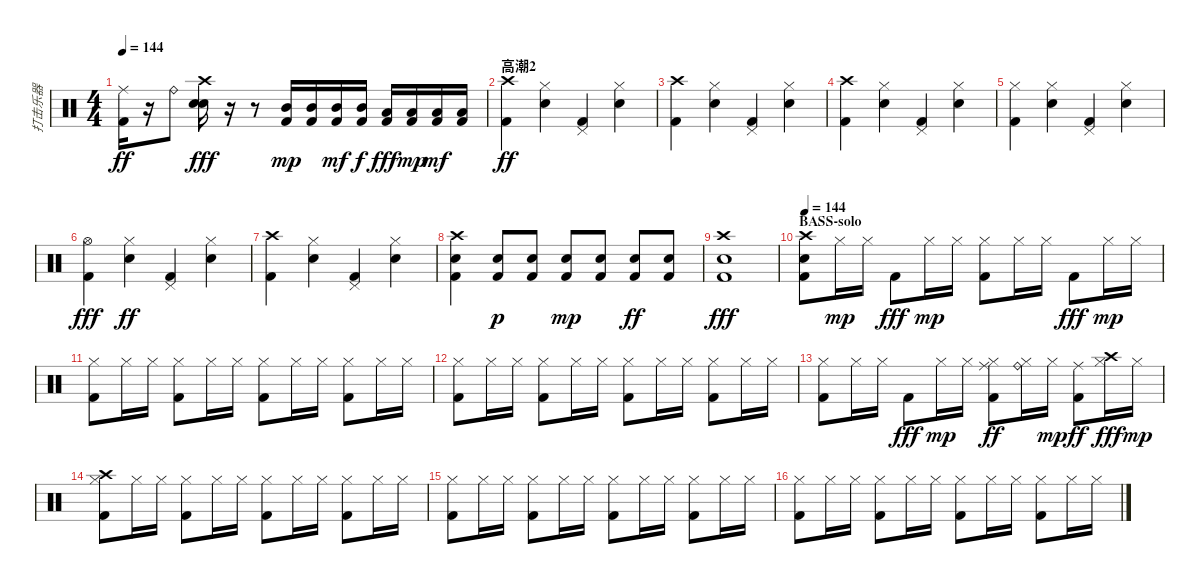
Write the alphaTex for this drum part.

\track ("打击乐器" "打击乐器") {instrument percussion}
\staff {score}
\articulation defaults
\ts (4 4)
\tempo 144
\clef neutral
\ks c
("Kick (hit) 2" "Ride (middle)").16{dy ff} r.16 "Ride (bell)".8 ("Snare (hit) 2" "Snare (hit) 2" "Crash high (hit)").16{dy fff} r.16 r.8 ("Kick (hit) 2" "Mid Tom (hit)").16{dy mp} ("Kick (hit) 2" "Mid Tom (hit)").16 ("Kick (hit) 2" "Mid Tom (hit)").16{dy mf} ("Kick (hit) 2" "Mid Tom (hit)").16{dy f} ("Kick (hit) 2" "Low Tom (hit)").16{dy fff} ("Kick (hit) 2" "Low Tom (hit)").16{dy mp} ("Kick (hit) 2" "Low Tom (hit)").16{dy mf} ("Kick (hit) 2" "Low Tom (hit)").16 |
\section ("" "高潮2")
("Kick (hit) 2" "Crash high (hit)").4{dy ff} ("Snare (hit) 2" "Hi-Hat (closed)").4 ("Kick (hit) 2" "Pedal Hi-Hat (hit)").4 ("Snare (hit) 2" "Hi-Hat (closed)").4 |
("Kick (hit) 2" "Crash high (hit)").4 ("Snare (hit) 2" "Hi-Hat (closed)").4 ("Kick (hit) 2" "Pedal Hi-Hat (hit)").4 ("Snare (hit) 2" "Hi-Hat (closed)").4 |
("Kick (hit) 2" "Crash high (hit)").4 ("Snare (hit) 2" "Hi-Hat (closed)").4 ("Kick (hit) 2" "Pedal Hi-Hat (hit)").4 ("Snare (hit) 2" "Hi-Hat (closed)").4 |
("Kick (hit) 2" "Hi-Hat (closed)").4 ("Snare (hit) 2" "Hi-Hat (closed)").4 ("Kick (hit) 2" "Pedal Hi-Hat (hit)").4 ("Snare (hit) 2" "Hi-Hat (closed)").4 |
("Kick (hit) 2" "Hi-Hat (open)").4{dy fff} ("Snare (hit) 2" "Hi-Hat (closed)").4{dy ff} ("Kick (hit) 2" "Pedal Hi-Hat (hit)").4 ("Snare (hit) 2" "Hi-Hat (closed)").4 |
("Kick (hit) 2" "Crash high (hit)").4 ("Snare (hit) 2" "Hi-Hat (closed)").4 ("Kick (hit) 2" "Pedal Hi-Hat (hit)").4 ("Snare (hit) 2" "Hi-Hat (closed)").4 |
("Kick (hit) 2" "Snare (hit) 2" "Crash high (hit)").4 ("Kick (hit) 2" "Snare (hit) 2").8{dy p} ("Kick (hit) 2" "Snare (hit) 2").8 ("Kick (hit) 2" "Snare (hit) 2").8{dy mp} ("Kick (hit) 2" "Snare (hit) 2").8 ("Kick (hit) 2" "Snare (hit) 2").8{dy ff} ("Kick (hit) 2" "Snare (hit) 2").8 |
("Kick (hit) 2" "Snare (hit) 2" "Crash high (hit)").1{dy fff} |
\section ("" "BASS-solo")
\tempo 144
("Kick (hit) 2" "Snare (hit) 2" "Crash high (hit)").8 "Hi-Hat (closed)".16{dy mp} "Hi-Hat (closed)".16 "Kick (hit) 2".8{dy fff} "Hi-Hat (closed)".16{dy mp} "Hi-Hat (closed)".16 ("Kick (hit) 2" "Hi-Hat (closed)").8 "Hi-Hat (closed)".16 "Hi-Hat (closed)".16 "Kick (hit) 2".8{dy fff} "Hi-Hat (closed)".16{dy mp} "Hi-Hat (closed)".16 |
("Kick (hit) 2" "Hi-Hat (closed)").8 "Hi-Hat (closed)".16 "Hi-Hat (closed)".16 ("Kick (hit) 2" "Hi-Hat (closed)").8 "Hi-Hat (closed)".16 "Hi-Hat (closed)".16 ("Kick (hit) 2" "Hi-Hat (closed)").8 "Hi-Hat (closed)".16 "Hi-Hat (closed)".16 ("Kick (hit) 2" "Hi-Hat (closed)").8 "Hi-Hat (closed)".16 "Hi-Hat (closed)".16 |
("Kick (hit) 2" "Hi-Hat (closed)").8 "Hi-Hat (closed)".16 "Hi-Hat (closed)".16 ("Kick (hit) 2" "Hi-Hat (closed)").8 "Hi-Hat (closed)".16 "Hi-Hat (closed)".16 ("Kick (hit) 2" "Hi-Hat (closed)").8 "Hi-Hat (closed)".16 "Hi-Hat (closed)".16 ("Kick (hit) 2" "Hi-Hat (closed)").8 "Hi-Hat (closed)".16 "Hi-Hat (closed)".16 |
("Kick (hit) 2" "Hi-Hat (closed)").8 "Hi-Hat (closed)".16 "Hi-Hat (closed)".16 "Kick (hit) 2".8{dy fff} "Hi-Hat (closed)".16{dy mp} "Hi-Hat (closed)".16 ("Kick (hit) 2" "Hi-Hat (closed)" "Ride (middle)").8{dy ff} ("Hi-Hat (closed)" "Ride (bell)").16 "Hi-Hat (closed)".16{dy mp} ("Kick (hit) 2" "Ride (middle)").8{dy ff} ("Hi-Hat (closed)" "Crash high (hit)").16{dy fff} "Hi-Hat (closed)".16{dy mp} |
("Kick (hit) 2" "Hi-Hat (closed)" "Crash high (hit)").8 "Hi-Hat (closed)".16 "Hi-Hat (closed)".16 ("Kick (hit) 2" "Hi-Hat (closed)").8 "Hi-Hat (closed)".16 "Hi-Hat (closed)".16 ("Kick (hit) 2" "Hi-Hat (closed)").8 "Hi-Hat (closed)".16 "Hi-Hat (closed)".16 ("Kick (hit) 2" "Hi-Hat (closed)").8 "Hi-Hat (closed)".16 "Hi-Hat (closed)".16 |
("Kick (hit) 2" "Hi-Hat (closed)").8 "Hi-Hat (closed)".16 "Hi-Hat (closed)".16 ("Kick (hit) 2" "Hi-Hat (closed)").8 "Hi-Hat (closed)".16 "Hi-Hat (closed)".16 ("Kick (hit) 2" "Hi-Hat (closed)").8 "Hi-Hat (closed)".16 "Hi-Hat (closed)".16 ("Kick (hit) 2" "Hi-Hat (closed)").8 "Hi-Hat (closed)".16 "Hi-Hat (closed)".16 |
("Kick (hit) 2" "Hi-Hat (closed)").8 "Hi-Hat (closed)".16 "Hi-Hat (closed)".16 ("Kick (hit) 2" "Hi-Hat (closed)").8 "Hi-Hat (closed)".16 "Hi-Hat (closed)".16 ("Kick (hit) 2" "Hi-Hat (closed)").8 "Hi-Hat (closed)".16 "Hi-Hat (closed)".16 ("Kick (hit) 2" "Hi-Hat (closed)").8 "Hi-Hat (closed)".16 "Hi-Hat (closed)".16
